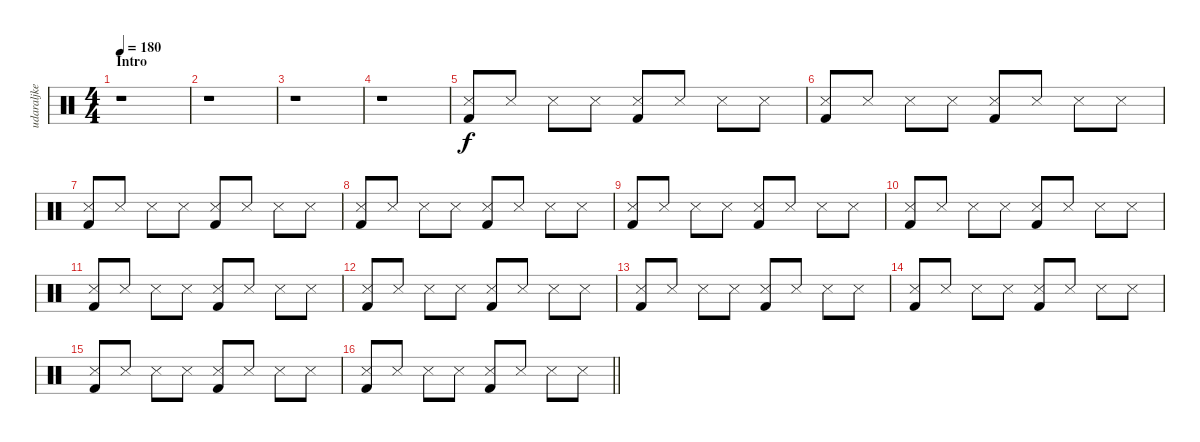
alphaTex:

\track ("udaraljke" "udaraljke") {instrument percussion}
\staff {score}
\articulation defaults
\ts (4 4)
\section ("" "Intro")
\tempo 180
\clef neutral
\ks c
r.1{dy f} |
r.1 |
r.1 |
r.1 |
("Metronome (hit)" "Kick (hit) 2").8 "Snare (side stick) 3".8 "Snare (side stick) 3".8 "Snare (side stick) 3".8 ("Metronome (hit)" "Kick (hit) 2").8 "Snare (side stick) 3".8 "Snare (side stick) 3".8 "Snare (side stick) 3".8 |
("Metronome (hit)" "Kick (hit) 2").8 "Snare (side stick) 3".8 "Snare (side stick) 3".8 "Snare (side stick) 3".8 ("Metronome (hit)" "Kick (hit) 2").8 "Snare (side stick) 3".8 "Snare (side stick) 3".8 "Snare (side stick) 3".8 |
("Metronome (hit)" "Kick (hit) 2").8 "Snare (side stick) 3".8 "Snare (side stick) 3".8 "Snare (side stick) 3".8 ("Metronome (hit)" "Kick (hit) 2").8 "Snare (side stick) 3".8 "Snare (side stick) 3".8 "Snare (side stick) 3".8 |
("Metronome (hit)" "Kick (hit) 2").8 "Snare (side stick) 3".8 "Snare (side stick) 3".8 "Snare (side stick) 3".8 ("Metronome (hit)" "Kick (hit) 2").8 "Snare (side stick) 3".8 "Snare (side stick) 3".8 "Snare (side stick) 3".8 |
("Metronome (hit)" "Kick (hit) 2").8 "Snare (side stick) 3".8 "Snare (side stick) 3".8 "Snare (side stick) 3".8 ("Metronome (hit)" "Kick (hit) 2").8 "Snare (side stick) 3".8 "Snare (side stick) 3".8 "Snare (side stick) 3".8 |
("Metronome (hit)" "Kick (hit) 2").8 "Snare (side stick) 3".8 "Snare (side stick) 3".8 "Snare (side stick) 3".8 ("Metronome (hit)" "Kick (hit) 2").8 "Snare (side stick) 3".8 "Snare (side stick) 3".8 "Snare (side stick) 3".8 |
("Metronome (hit)" "Kick (hit) 2").8 "Snare (side stick) 3".8 "Snare (side stick) 3".8 "Snare (side stick) 3".8 ("Metronome (hit)" "Kick (hit) 2").8 "Snare (side stick) 3".8 "Snare (side stick) 3".8 "Snare (side stick) 3".8 |
("Metronome (hit)" "Kick (hit) 2").8 "Snare (side stick) 3".8 "Snare (side stick) 3".8 "Snare (side stick) 3".8 ("Metronome (hit)" "Kick (hit) 2").8 "Snare (side stick) 3".8 "Snare (side stick) 3".8 "Snare (side stick) 3".8 |
("Metronome (hit)" "Kick (hit) 2").8 "Snare (side stick) 3".8 "Snare (side stick) 3".8 "Snare (side stick) 3".8 ("Metronome (hit)" "Kick (hit) 2").8 "Snare (side stick) 3".8 "Snare (side stick) 3".8 "Snare (side stick) 3".8 |
("Metronome (hit)" "Kick (hit) 2").8 "Snare (side stick) 3".8 "Snare (side stick) 3".8 "Snare (side stick) 3".8 ("Metronome (hit)" "Kick (hit) 2").8 "Snare (side stick) 3".8 "Snare (side stick) 3".8 "Snare (side stick) 3".8 |
("Metronome (hit)" "Kick (hit) 2").8 "Snare (side stick) 3".8 "Snare (side stick) 3".8 "Snare (side stick) 3".8 ("Metronome (hit)" "Kick (hit) 2").8 "Snare (side stick) 3".8 "Snare (side stick) 3".8 "Snare (side stick) 3".8 |
\barLineRight lightlight
("Metronome (hit)" "Kick (hit) 2").8 "Snare (side stick) 3".8 "Snare (side stick) 3".8 "Snare (side stick) 3".8 ("Metronome (hit)" "Kick (hit) 2").8 "Snare (side stick) 3".8 "Snare (side stick) 3".8 "Snare (side stick) 3".8
